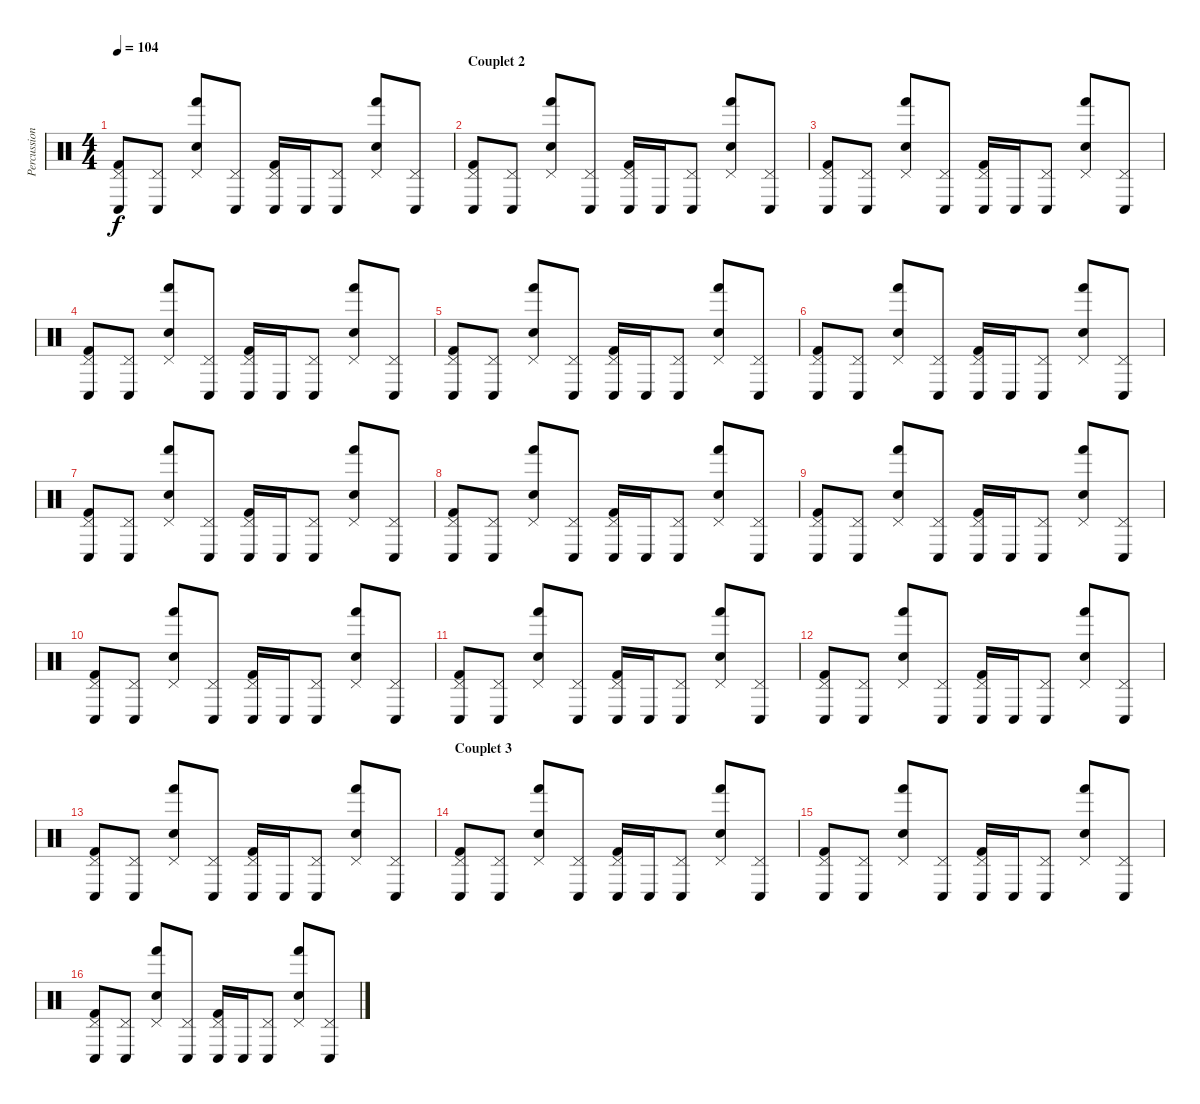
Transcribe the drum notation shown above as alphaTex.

\track ("Percussions" "Percussion") {instrument percussion}
\staff {score}
\articulation defaults
\ts (4 4)
\tempo 104
\clef neutral
\ks c
("Pedal Hi-Hat (hit)" "Conga low (hit)" "Kick (hit) 2").8{dy f} ("Pedal Hi-Hat (hit)" "Conga low (hit)").8 ("Pedal Hi-Hat (hit)" "Snare (hit) 2" "Hand (hit)").8 ("Pedal Hi-Hat (hit)" "Conga low (hit)").8 ("Pedal Hi-Hat (hit)" "Conga low (hit)" "Kick (hit) 2").16 "Conga low (hit)".16 ("Pedal Hi-Hat (hit)" "Conga low (hit)").8 ("Pedal Hi-Hat (hit)" "Snare (hit) 2" "Hand (hit)").8 ("Pedal Hi-Hat (hit)" "Conga low (hit)").8 |
\section ("" "Couplet 2")
("Pedal Hi-Hat (hit)" "Conga low (hit)" "Kick (hit) 2").8 ("Pedal Hi-Hat (hit)" "Conga low (hit)").8 ("Pedal Hi-Hat (hit)" "Snare (hit) 2" "Hand (hit)").8 ("Pedal Hi-Hat (hit)" "Conga low (hit)").8 ("Pedal Hi-Hat (hit)" "Conga low (hit)" "Kick (hit) 2").16 "Conga low (hit)".16 ("Pedal Hi-Hat (hit)" "Conga low (hit)").8 ("Pedal Hi-Hat (hit)" "Snare (hit) 2" "Hand (hit)").8 ("Pedal Hi-Hat (hit)" "Conga low (hit)").8 |
("Pedal Hi-Hat (hit)" "Conga low (hit)" "Kick (hit) 2").8 ("Pedal Hi-Hat (hit)" "Conga low (hit)").8 ("Pedal Hi-Hat (hit)" "Snare (hit) 2" "Hand (hit)").8 ("Pedal Hi-Hat (hit)" "Conga low (hit)").8 ("Pedal Hi-Hat (hit)" "Conga low (hit)" "Kick (hit) 2").16 "Conga low (hit)".16 ("Pedal Hi-Hat (hit)" "Conga low (hit)").8 ("Pedal Hi-Hat (hit)" "Snare (hit) 2" "Hand (hit)").8 ("Pedal Hi-Hat (hit)" "Conga low (hit)").8 |
("Pedal Hi-Hat (hit)" "Conga low (hit)" "Kick (hit) 2").8 ("Pedal Hi-Hat (hit)" "Conga low (hit)").8 ("Pedal Hi-Hat (hit)" "Snare (hit) 2" "Hand (hit)").8 ("Pedal Hi-Hat (hit)" "Conga low (hit)").8 ("Pedal Hi-Hat (hit)" "Conga low (hit)" "Kick (hit) 2").16 "Conga low (hit)".16 ("Pedal Hi-Hat (hit)" "Conga low (hit)").8 ("Pedal Hi-Hat (hit)" "Snare (hit) 2" "Hand (hit)").8 ("Pedal Hi-Hat (hit)" "Conga low (hit)").8 |
("Pedal Hi-Hat (hit)" "Conga low (hit)" "Kick (hit) 2").8 ("Pedal Hi-Hat (hit)" "Conga low (hit)").8 ("Pedal Hi-Hat (hit)" "Snare (hit) 2" "Hand (hit)").8 ("Pedal Hi-Hat (hit)" "Conga low (hit)").8 ("Pedal Hi-Hat (hit)" "Conga low (hit)" "Kick (hit) 2").16 "Conga low (hit)".16 ("Pedal Hi-Hat (hit)" "Conga low (hit)").8 ("Pedal Hi-Hat (hit)" "Snare (hit) 2" "Hand (hit)").8 ("Pedal Hi-Hat (hit)" "Conga low (hit)").8 |
("Pedal Hi-Hat (hit)" "Conga low (hit)" "Kick (hit) 2").8 ("Pedal Hi-Hat (hit)" "Conga low (hit)").8 ("Pedal Hi-Hat (hit)" "Snare (hit) 2" "Hand (hit)").8 ("Pedal Hi-Hat (hit)" "Conga low (hit)").8 ("Pedal Hi-Hat (hit)" "Conga low (hit)" "Kick (hit) 2").16 "Conga low (hit)".16 ("Pedal Hi-Hat (hit)" "Conga low (hit)").8 ("Pedal Hi-Hat (hit)" "Snare (hit) 2" "Hand (hit)").8 ("Pedal Hi-Hat (hit)" "Conga low (hit)").8 |
("Pedal Hi-Hat (hit)" "Conga low (hit)" "Kick (hit) 2").8 ("Pedal Hi-Hat (hit)" "Conga low (hit)").8 ("Pedal Hi-Hat (hit)" "Snare (hit) 2" "Hand (hit)").8 ("Pedal Hi-Hat (hit)" "Conga low (hit)").8 ("Pedal Hi-Hat (hit)" "Conga low (hit)" "Kick (hit) 2").16 "Conga low (hit)".16 ("Pedal Hi-Hat (hit)" "Conga low (hit)").8 ("Pedal Hi-Hat (hit)" "Snare (hit) 2" "Hand (hit)").8 ("Pedal Hi-Hat (hit)" "Conga low (hit)").8 |
("Pedal Hi-Hat (hit)" "Conga low (hit)" "Kick (hit) 2").8 ("Pedal Hi-Hat (hit)" "Conga low (hit)").8 ("Pedal Hi-Hat (hit)" "Snare (hit) 2" "Hand (hit)").8 ("Pedal Hi-Hat (hit)" "Conga low (hit)").8 ("Pedal Hi-Hat (hit)" "Conga low (hit)" "Kick (hit) 2").16 "Conga low (hit)".16 ("Pedal Hi-Hat (hit)" "Conga low (hit)").8 ("Pedal Hi-Hat (hit)" "Snare (hit) 2" "Hand (hit)").8 ("Pedal Hi-Hat (hit)" "Conga low (hit)").8 |
("Pedal Hi-Hat (hit)" "Conga low (hit)" "Kick (hit) 2").8 ("Pedal Hi-Hat (hit)" "Conga low (hit)").8 ("Pedal Hi-Hat (hit)" "Snare (hit) 2" "Hand (hit)").8 ("Pedal Hi-Hat (hit)" "Conga low (hit)").8 ("Pedal Hi-Hat (hit)" "Conga low (hit)" "Kick (hit) 2").16 "Conga low (hit)".16 ("Pedal Hi-Hat (hit)" "Conga low (hit)").8 ("Pedal Hi-Hat (hit)" "Snare (hit) 2" "Hand (hit)").8 ("Pedal Hi-Hat (hit)" "Conga low (hit)").8 |
("Pedal Hi-Hat (hit)" "Conga low (hit)" "Kick (hit) 2").8 ("Pedal Hi-Hat (hit)" "Conga low (hit)").8 ("Pedal Hi-Hat (hit)" "Snare (hit) 2" "Hand (hit)").8 ("Pedal Hi-Hat (hit)" "Conga low (hit)").8 ("Pedal Hi-Hat (hit)" "Conga low (hit)" "Kick (hit) 2").16 "Conga low (hit)".16 ("Pedal Hi-Hat (hit)" "Conga low (hit)").8 ("Pedal Hi-Hat (hit)" "Snare (hit) 2" "Hand (hit)").8 ("Pedal Hi-Hat (hit)" "Conga low (hit)").8 |
("Pedal Hi-Hat (hit)" "Conga low (hit)" "Kick (hit) 2").8 ("Pedal Hi-Hat (hit)" "Conga low (hit)").8 ("Pedal Hi-Hat (hit)" "Snare (hit) 2" "Hand (hit)").8 ("Pedal Hi-Hat (hit)" "Conga low (hit)").8 ("Pedal Hi-Hat (hit)" "Conga low (hit)" "Kick (hit) 2").16 "Conga low (hit)".16 ("Pedal Hi-Hat (hit)" "Conga low (hit)").8 ("Pedal Hi-Hat (hit)" "Snare (hit) 2" "Hand (hit)").8 ("Pedal Hi-Hat (hit)" "Conga low (hit)").8 |
("Pedal Hi-Hat (hit)" "Conga low (hit)" "Kick (hit) 2").8 ("Pedal Hi-Hat (hit)" "Conga low (hit)").8 ("Pedal Hi-Hat (hit)" "Snare (hit) 2" "Hand (hit)").8 ("Pedal Hi-Hat (hit)" "Conga low (hit)").8 ("Pedal Hi-Hat (hit)" "Conga low (hit)" "Kick (hit) 2").16 "Conga low (hit)".16 ("Pedal Hi-Hat (hit)" "Conga low (hit)").8 ("Pedal Hi-Hat (hit)" "Snare (hit) 2" "Hand (hit)").8 ("Pedal Hi-Hat (hit)" "Conga low (hit)").8 |
("Pedal Hi-Hat (hit)" "Conga low (hit)" "Kick (hit) 2").8 ("Pedal Hi-Hat (hit)" "Conga low (hit)").8 ("Pedal Hi-Hat (hit)" "Snare (hit) 2" "Hand (hit)").8 ("Pedal Hi-Hat (hit)" "Conga low (hit)").8 ("Pedal Hi-Hat (hit)" "Conga low (hit)" "Kick (hit) 2").16 "Conga low (hit)".16 ("Pedal Hi-Hat (hit)" "Conga low (hit)").8 ("Pedal Hi-Hat (hit)" "Snare (hit) 2" "Hand (hit)").8 ("Pedal Hi-Hat (hit)" "Conga low (hit)").8 |
\section ("" "Couplet 3")
("Pedal Hi-Hat (hit)" "Conga low (hit)" "Kick (hit) 2").8 ("Pedal Hi-Hat (hit)" "Conga low (hit)").8 ("Pedal Hi-Hat (hit)" "Snare (hit) 2" "Hand (hit)").8 ("Pedal Hi-Hat (hit)" "Conga low (hit)").8 ("Pedal Hi-Hat (hit)" "Conga low (hit)" "Kick (hit) 2").16 "Conga low (hit)".16 ("Pedal Hi-Hat (hit)" "Conga low (hit)").8 ("Pedal Hi-Hat (hit)" "Snare (hit) 2" "Hand (hit)").8 ("Pedal Hi-Hat (hit)" "Conga low (hit)").8 |
("Pedal Hi-Hat (hit)" "Conga low (hit)" "Kick (hit) 2").8 ("Pedal Hi-Hat (hit)" "Conga low (hit)").8 ("Pedal Hi-Hat (hit)" "Snare (hit) 2" "Hand (hit)").8 ("Pedal Hi-Hat (hit)" "Conga low (hit)").8 ("Pedal Hi-Hat (hit)" "Conga low (hit)" "Kick (hit) 2").16 "Conga low (hit)".16 ("Pedal Hi-Hat (hit)" "Conga low (hit)").8 ("Pedal Hi-Hat (hit)" "Snare (hit) 2" "Hand (hit)").8 ("Pedal Hi-Hat (hit)" "Conga low (hit)").8 |
("Pedal Hi-Hat (hit)" "Conga low (hit)" "Kick (hit) 2").8 ("Pedal Hi-Hat (hit)" "Conga low (hit)").8 ("Pedal Hi-Hat (hit)" "Snare (hit) 2" "Hand (hit)").8 ("Pedal Hi-Hat (hit)" "Conga low (hit)").8 ("Pedal Hi-Hat (hit)" "Conga low (hit)" "Kick (hit) 2").16 "Conga low (hit)".16 ("Pedal Hi-Hat (hit)" "Conga low (hit)").8 ("Pedal Hi-Hat (hit)" "Snare (hit) 2" "Hand (hit)").8 ("Pedal Hi-Hat (hit)" "Conga low (hit)").8
